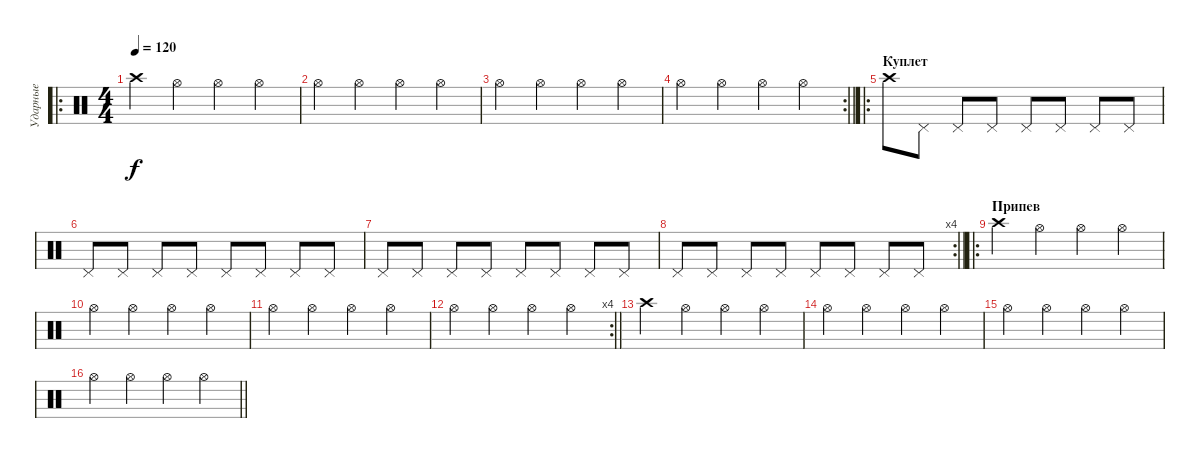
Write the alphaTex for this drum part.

\track ("Ударные" "Ударные") {instrument percussion}
\staff {score}
\articulation defaults
\ro
\ts (4 4)
\tempo 120
\clef neutral
\ks c "Crash high (hit)".4{dy f} "Hi-Hat (open)".4 "Hi-Hat (open)".4 "Hi-Hat (open)".4
|
"Hi-Hat (open)".4 "Hi-Hat (open)".4 "Hi-Hat (open)".4 "Hi-Hat (open)".4 |
"Hi-Hat (open)".4 "Hi-Hat (open)".4 "Hi-Hat (open)".4 "Hi-Hat (open)".4 |
\rc 2
\barLineRight lightlight "Hi-Hat (open)".4 "Hi-Hat (open)".4 "Hi-Hat (open)".4 "Hi-Hat (open)".4
|
\ro
\section ("" "Куплет")
"Crash high (hit)".8 "Pedal Hi-Hat (hit)".8 "Pedal Hi-Hat (hit)".8 "Pedal Hi-Hat (hit)".8 "Pedal Hi-Hat (hit)".8 "Pedal Hi-Hat (hit)".8 "Pedal Hi-Hat (hit)".8 "Pedal Hi-Hat (hit)".8 |
"Pedal Hi-Hat (hit)".8 "Pedal Hi-Hat (hit)".8 "Pedal Hi-Hat (hit)".8 "Pedal Hi-Hat (hit)".8 "Pedal Hi-Hat (hit)".8 "Pedal Hi-Hat (hit)".8 "Pedal Hi-Hat (hit)".8 "Pedal Hi-Hat (hit)".8 |
"Pedal Hi-Hat (hit)".8 "Pedal Hi-Hat (hit)".8 "Pedal Hi-Hat (hit)".8 "Pedal Hi-Hat (hit)".8 "Pedal Hi-Hat (hit)".8 "Pedal Hi-Hat (hit)".8 "Pedal Hi-Hat (hit)".8 "Pedal Hi-Hat (hit)".8 |
\rc 4
\barLineRight lightlight "Pedal Hi-Hat (hit)".8 "Pedal Hi-Hat (hit)".8 "Pedal Hi-Hat (hit)".8 "Pedal Hi-Hat (hit)".8 "Pedal Hi-Hat (hit)".8 "Pedal Hi-Hat (hit)".8 "Pedal Hi-Hat (hit)".8 "Pedal Hi-Hat (hit)".8
|
\ro
\section ("" "Припев")
"Crash high (hit)".4 "Hi-Hat (open)".4 "Hi-Hat (open)".4 "Hi-Hat (open)".4 |
"Hi-Hat (open)".4 "Hi-Hat (open)".4 "Hi-Hat (open)".4 "Hi-Hat (open)".4 |
"Hi-Hat (open)".4 "Hi-Hat (open)".4 "Hi-Hat (open)".4 "Hi-Hat (open)".4 |
\rc 4
\barLineRight lightlight "Hi-Hat (open)".4 "Hi-Hat (open)".4 "Hi-Hat (open)".4 "Hi-Hat (open)".4
|
"Crash high (hit)".4 "Hi-Hat (open)".4 "Hi-Hat (open)".4 "Hi-Hat (open)".4 |
"Hi-Hat (open)".4 "Hi-Hat (open)".4 "Hi-Hat (open)".4 "Hi-Hat (open)".4 |
"Hi-Hat (open)".4 "Hi-Hat (open)".4 "Hi-Hat (open)".4 "Hi-Hat (open)".4 |
\barLineRight lightlight "Hi-Hat (open)".4 "Hi-Hat (open)".4 "Hi-Hat (open)".4 "Hi-Hat (open)".4
